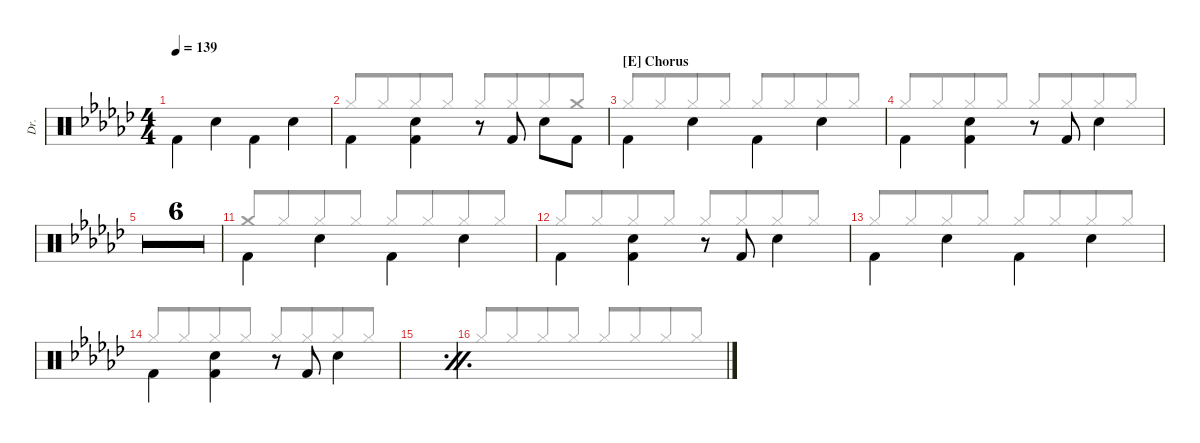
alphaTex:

\defaultSystemsLayout 4
\hideDynamics
\bracketExtendMode groupsimilarinstruments
\otherSystemsTrackNameOrientation horizontal
\track ("Drums" "Dr.") {multiBarRest instrument percussion}
\staff {score}
\articulation defaults
\voice
\ts (4 4)
\tempo 139
\clef neutral
\ks gb "Kick (hit) 2"{acc forcenatural}.4{dy f beam Down} "Snare (hit) 2"{acc forcenatural}.4{beam Down} "Kick (hit) 2"{acc forcenatural}.4{beam Down} "Snare (hit) 2"{acc forcenatural}.4{beam Down}
|
"Kick (hit) 2"{acc forcenatural}.4{beam Down} ("Snare (hit) 2"{acc forcenatural} "Kick (hit) 2"{acc forcenatural}).4{beam Down} r.8{beam Up} "Kick (hit) 2"{acc forcenatural}.8{beam Down} "Snare (hit) 2"{acc forcenatural}.8{beam Down} "Kick (hit) 2"{acc forcenatural}.8{beam Down} |
\section ("E" "Chorus")
"Kick (hit) 2"{acc forcenatural}.4{beam Down} "Snare (hit) 2"{acc forcenatural}.4{beam Down} "Kick (hit) 2"{acc forcenatural}.4{beam Down} "Snare (hit) 2"{acc forcenatural}.4{beam Down} |
"Kick (hit) 2"{acc forcenatural}.4{beam Down} ("Snare (hit) 2"{acc forcenatural} "Kick (hit) 2"{acc forcenatural}).4{beam Down} r.8{beam Up} "Kick (hit) 2"{acc forcenatural}.8{beam Down} "Snare (hit) 2"{acc forcenatural}.4{beam Down} |
\simile firstofdouble
|
\simile secondofdouble
|
\simile firstofdouble
|
\simile secondofdouble
|
\simile firstofdouble
|
\simile secondofdouble
|
\simile none "Kick (hit) 2"{acc forcenatural}.4{beam Down} "Snare (hit) 2"{acc forcenatural}.4{beam Down} "Kick (hit) 2"{acc forcenatural}.4{beam Down} "Snare (hit) 2"{acc forcenatural}.4{beam Down}
|
"Kick (hit) 2"{acc forcenatural}.4{beam Down} ("Snare (hit) 2"{acc forcenatural} "Kick (hit) 2"{acc forcenatural}).4{beam Down} r.8{beam Up} "Kick (hit) 2"{acc forcenatural}.8{beam Down} "Snare (hit) 2"{acc forcenatural}.4{beam Down} |
"Kick (hit) 2"{acc forcenatural}.4{beam Down} "Snare (hit) 2"{acc forcenatural}.4{beam Down} "Kick (hit) 2"{acc forcenatural}.4{beam Down} "Snare (hit) 2"{acc forcenatural}.4{beam Down} |
"Kick (hit) 2"{acc forcenatural}.4{beam Down} ("Snare (hit) 2"{acc forcenatural} "Kick (hit) 2"{acc forcenatural}).4{beam Down} r.8{beam Up} "Kick (hit) 2"{acc forcenatural}.8{beam Down} "Snare (hit) 2"{acc forcenatural}.4{beam Down} |
\simile firstofdouble
|
\simile secondofdouble
\voice
\clef neutral
\ottava regular
\simile none
\ks gb "Hi-Hat (closed)"{acc forcenatural}.8{dy f beam Up} "Hi-Hat (closed)"{acc forcenatural}.8{beam Up beam merge} "Hi-Hat (closed)"{acc forcenatural}.8{beam Up} "Hi-Hat (closed)"{acc forcenatural}.8{beam Up} "Hi-Hat (closed)"{acc forcenatural}.8{beam Up} "Hi-Hat (closed)"{acc forcenatural}.8{beam Up beam merge} "Hi-Hat (closed)"{acc forcenatural}.8{beam Up} "Hi-Hat (closed)"{acc forcenatural}.8{beam Up}
|
"Hi-Hat (closed)"{acc forcenatural}.8{beam Up beam merge} "Hi-Hat (closed)"{acc forcenatural}.8{beam Up beam merge} "Hi-Hat (closed)"{acc forcenatural}.8{beam Up} "Hi-Hat (closed)"{acc forcenatural}.8{beam Up} "Hi-Hat (closed)"{acc forcenatural}.8{beam Up} "Hi-Hat (closed)"{acc forcenatural}.8{beam Up beam merge} "Hi-Hat (closed)"{acc forcenatural}.8{beam Up beam merge} "Crash medium (hit)"{acc forcenatural}.8{beam Up} |
"Hi-Hat (closed)"{acc forcenatural}.8{beam Up} "Hi-Hat (closed)"{acc forcenatural}.8{beam Up beam merge} "Hi-Hat (closed)"{acc forcenatural}.8{beam Up} "Hi-Hat (closed)"{acc forcenatural}.8{beam Up} "Hi-Hat (closed)"{acc forcenatural}.8{beam Up} "Hi-Hat (closed)"{acc forcenatural}.8{beam Up beam merge} "Hi-Hat (closed)"{acc forcenatural}.8{beam Up} "Hi-Hat (closed)"{acc forcenatural}.8{beam Up} |
"Hi-Hat (closed)"{acc forcenatural}.8{beam Up} "Hi-Hat (closed)"{acc forcenatural}.8{beam Up beam merge} "Hi-Hat (closed)"{acc forcenatural}.8{beam Up} "Hi-Hat (closed)"{acc forcenatural}.8{beam Up} "Hi-Hat (closed)"{acc forcenatural}.8{beam Up beam merge} "Hi-Hat (closed)"{acc forcenatural}.8{beam Up beam merge} "Hi-Hat (closed)"{acc forcenatural}.8{beam Up beam merge} "Hi-Hat (closed)"{acc forcenatural}.8{beam Up} |
\simile firstofdouble
|
\simile secondofdouble
|
\simile firstofdouble
|
\simile secondofdouble
|
\simile firstofdouble
|
\simile secondofdouble
|
\simile none "Crash medium (hit)"{acc forcenatural}.8{beam Up} "Hi-Hat (closed)"{acc forcenatural}.8{beam Up beam merge} "Hi-Hat (closed)"{acc forcenatural}.8{beam Up} "Hi-Hat (closed)"{acc forcenatural}.8{beam Up} "Hi-Hat (closed)"{acc forcenatural}.8{beam Up} "Hi-Hat (closed)"{acc forcenatural}.8{beam Up beam merge} "Hi-Hat (closed)"{acc forcenatural}.8{beam Up} "Hi-Hat (closed)"{acc forcenatural}.8{beam Up}
|
"Hi-Hat (closed)"{acc forcenatural}.8{beam Up} "Hi-Hat (closed)"{acc forcenatural}.8{beam Up beam merge} "Hi-Hat (closed)"{acc forcenatural}.8{beam Up} "Hi-Hat (closed)"{acc forcenatural}.8{beam Up} "Hi-Hat (closed)"{acc forcenatural}.8{beam Up beam merge} "Hi-Hat (closed)"{acc forcenatural}.8{beam Up beam merge} "Hi-Hat (closed)"{acc forcenatural}.8{beam Up beam merge} "Hi-Hat (closed)"{acc forcenatural}.8{beam Up} |
"Hi-Hat (closed)"{acc forcenatural}.8{beam Up} "Hi-Hat (closed)"{acc forcenatural}.8{beam Up beam merge} "Hi-Hat (closed)"{acc forcenatural}.8{beam Up} "Hi-Hat (closed)"{acc forcenatural}.8{beam Up} "Hi-Hat (closed)"{acc forcenatural}.8{beam Up} "Hi-Hat (closed)"{acc forcenatural}.8{beam Up beam merge} "Hi-Hat (closed)"{acc forcenatural}.8{beam Up} "Hi-Hat (closed)"{acc forcenatural}.8{beam Up} |
"Hi-Hat (closed)"{acc forcenatural}.8{beam Up beam merge} "Hi-Hat (closed)"{acc forcenatural}.8{beam Up beam merge} "Hi-Hat (closed)"{acc forcenatural}.8{beam Up} "Hi-Hat (closed)"{acc forcenatural}.8{beam Up} "Hi-Hat (closed)"{acc forcenatural}.8{beam Up} "Hi-Hat (closed)"{acc forcenatural}.8{beam Up beam merge} "Hi-Hat (closed)"{acc forcenatural}.8{beam Up beam merge} "Hi-Hat (closed)"{acc forcenatural}.8{beam Up} |
\simile firstofdouble
|
\simile secondofdouble
